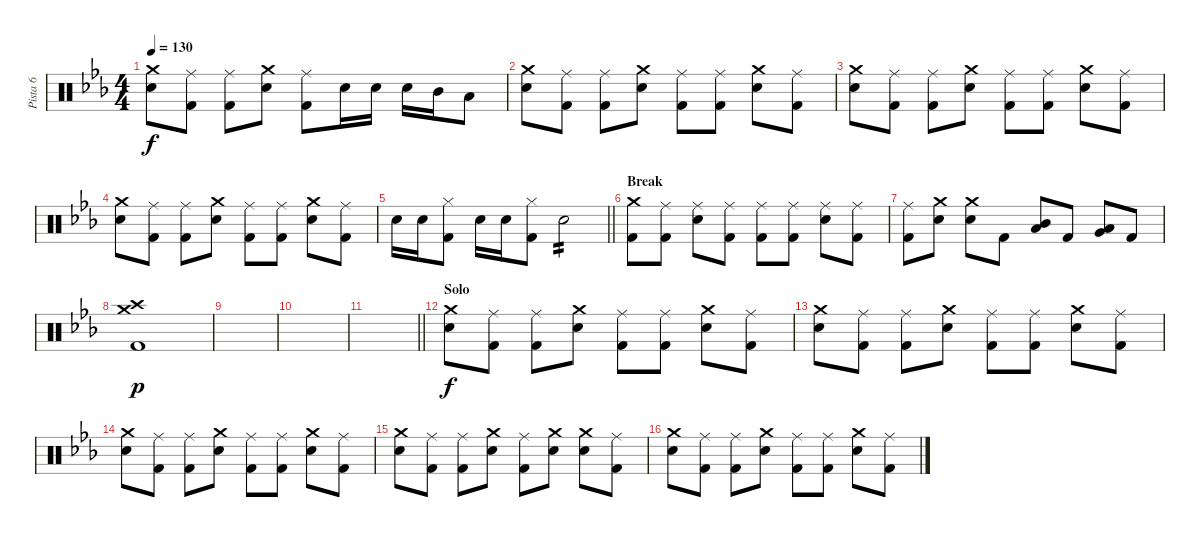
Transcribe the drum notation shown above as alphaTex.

\track ("Pista 6" "Pista 6") {instrument percussion}
\staff {score}
\articulation defaults
\ts (4 4)
\tempo 130
\clef neutral
\ks eb
("Crash medium (hit)" "Snare (hit) 2").8{dy f} ("Ride (middle)" "Kick (hit) 2").8 ("Ride (middle)" "Kick (hit) 2").8 ("Crash medium (hit)" "Snare (hit) 2").8 ("Ride (middle)" "Kick (hit) 2").8 "Snare (hit) 2".16 "Snare (hit) 2".16 "Snare (hit) 2".16 "Mid Tom (hit)".16 "Low Tom (hit)".8 |
("Crash medium (hit)" "Snare (hit) 2").8 ("Ride (middle)" "Kick (hit) 2").8 ("Ride (middle)" "Kick (hit) 2").8 ("Crash medium (hit)" "Snare (hit) 2").8 ("Ride (middle)" "Kick (hit) 2").8 ("Ride (middle)" "Kick (hit) 2").8 ("Crash medium (hit)" "Snare (hit) 2").8 ("Ride (middle)" "Kick (hit) 2").8 |
("Crash medium (hit)" "Snare (hit) 2").8 ("Ride (middle)" "Kick (hit) 2").8 ("Ride (middle)" "Kick (hit) 2").8 ("Crash medium (hit)" "Snare (hit) 2").8 ("Ride (middle)" "Kick (hit) 2").8 ("Ride (middle)" "Kick (hit) 2").8 ("Crash medium (hit)" "Snare (hit) 2").8 ("Ride (middle)" "Kick (hit) 2").8 |
("Crash medium (hit)" "Snare (hit) 2").8 ("Ride (middle)" "Kick (hit) 2").8 ("Ride (middle)" "Kick (hit) 2").8 ("Crash medium (hit)" "Snare (hit) 2").8 ("Ride (middle)" "Kick (hit) 2").8 ("Ride (middle)" "Kick (hit) 2").8 ("Crash medium (hit)" "Snare (hit) 2").8 ("Ride (middle)" "Kick (hit) 2").8 |
\barLineRight lightlight "Snare (hit) 2".16 "Snare (hit) 2".16
("Hi-Hat (closed)" "Kick (hit) 2").8 "Snare (hit) 2".16 "Snare (hit) 2".16 ("Hi-Hat (closed)" "Kick (hit) 2").8 "Snare (hit) 2".2{tp 2} |
\section ("" "Break")
("Crash medium (hit)" "Kick (hit) 2").8 ("Ride (middle)" "Kick (hit) 2").8 ("Ride (middle)" "Snare (hit) 2").8 ("Ride (middle)" "Kick (hit) 2").8 ("Ride (middle)" "Kick (hit) 2").8 ("Ride (middle)" "Kick (hit) 2").8 ("Ride (middle)" "Snare (hit) 2").8 ("Ride (middle)" "Kick (hit) 2").8 |
("Ride (middle)" "Kick (hit) 2").8 ("Crash medium (hit)" "Snare (hit) 2").8 ("Crash medium (hit)" "Snare (hit) 2").8 "Kick (hit) 2".8 ("Mid Tom (hit)" "Low Tom (hit)").8 "Kick (hit) 2".8 ("Low Tom (hit)" "Very Low Tom (hit)").8 "Kick (hit) 2".8 |
("Crash medium (hit)" "Crash high (hit)" "Kick (hit) 2").1{dy p} |
|
|
\barLineRight lightlight
|
\section ("" "Solo")
("Crash medium (hit)" "Snare (hit) 2").8{dy f} ("Ride (middle)" "Kick (hit) 2").8 ("Ride (middle)" "Kick (hit) 2").8 ("Crash medium (hit)" "Snare (hit) 2").8 ("Ride (middle)" "Kick (hit) 2").8 ("Ride (middle)" "Kick (hit) 2").8 ("Crash medium (hit)" "Snare (hit) 2").8 ("Ride (middle)" "Kick (hit) 2").8 |
("Crash medium (hit)" "Snare (hit) 2").8 ("Ride (middle)" "Kick (hit) 2").8 ("Ride (middle)" "Kick (hit) 2").8 ("Crash medium (hit)" "Snare (hit) 2").8 ("Ride (middle)" "Kick (hit) 2").8 ("Ride (middle)" "Kick (hit) 2").8 ("Crash medium (hit)" "Snare (hit) 2").8 ("Ride (middle)" "Kick (hit) 2").8 |
("Crash medium (hit)" "Snare (hit) 2").8 ("Ride (middle)" "Kick (hit) 2").8 ("Ride (middle)" "Kick (hit) 2").8 ("Crash medium (hit)" "Snare (hit) 2").8 ("Ride (middle)" "Kick (hit) 2").8 ("Ride (middle)" "Kick (hit) 2").8 ("Crash medium (hit)" "Snare (hit) 2").8 ("Ride (middle)" "Kick (hit) 2").8 |
("Crash medium (hit)" "Snare (hit) 2").8 ("Ride (middle)" "Kick (hit) 2").8 ("Ride (middle)" "Kick (hit) 2").8 ("Crash medium (hit)" "Snare (hit) 2").8 ("Ride (middle)" "Kick (hit) 2").8 ("Crash medium (hit)" "Snare (hit) 2").8 ("Crash medium (hit)" "Snare (hit) 2").8 ("Ride (middle)" "Kick (hit) 2").8 |
("Crash medium (hit)" "Snare (hit) 2").8 ("Ride (middle)" "Kick (hit) 2").8 ("Ride (middle)" "Kick (hit) 2").8 ("Crash medium (hit)" "Snare (hit) 2").8 ("Ride (middle)" "Kick (hit) 2").8 ("Ride (middle)" "Kick (hit) 2").8 ("Crash medium (hit)" "Snare (hit) 2").8 ("Ride (middle)" "Kick (hit) 2").8
